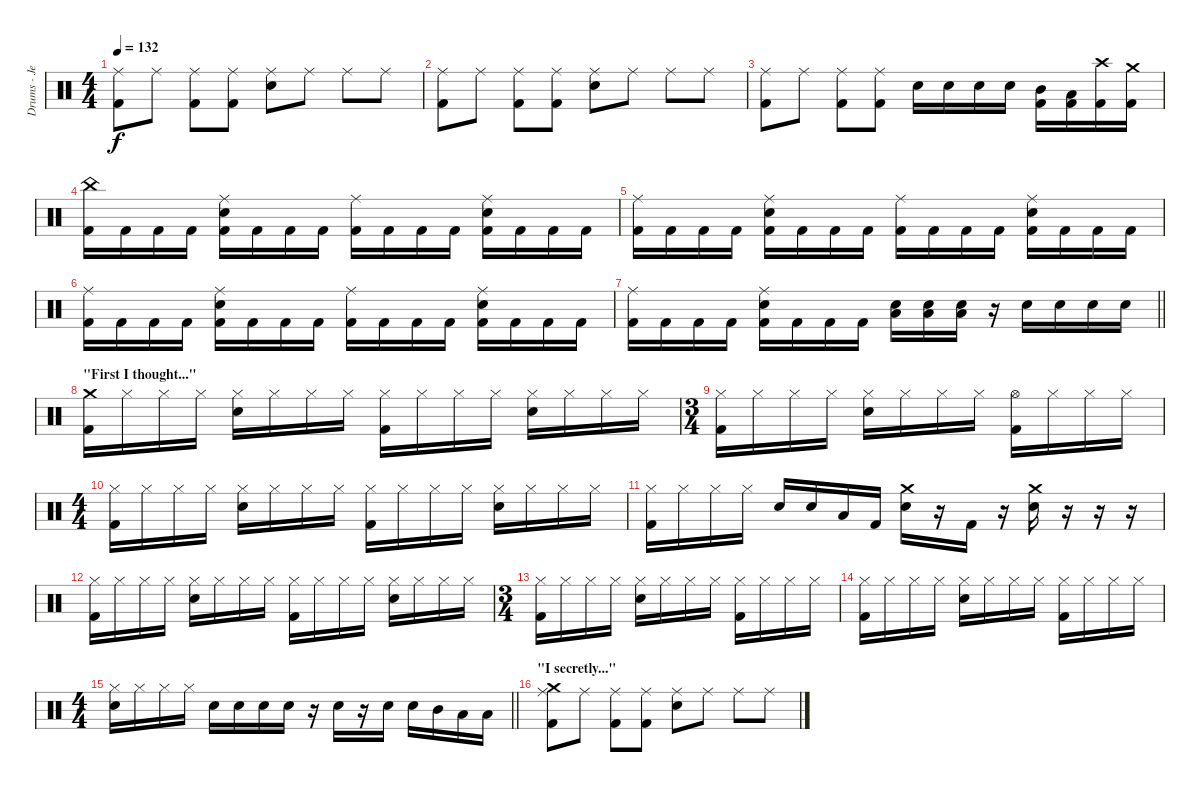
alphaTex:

\track ("Drums - Jeroen" "Drums - Je") {instrument percussion}
\staff {score}
\articulation defaults
\ts (4 4)
\tempo 132
\clef neutral
\ks c
("Ride (middle)" "Kick (hit) 2").8{dy f} "Ride (middle)".8 ("Ride (middle)" "Kick (hit) 2").8 ("Ride (middle)" "Kick (hit) 2").8 ("Ride (middle)" "Electric Snare (hit)").8 "Ride (middle)".8 "Ride (middle)".8 "Ride (middle)".8 |
("Ride (middle)" "Kick (hit) 2").8 "Ride (middle)".8 ("Ride (middle)" "Kick (hit) 2").8 ("Ride (middle)" "Kick (hit) 2").8 ("Ride (middle)" "Electric Snare (hit)").8 "Ride (middle)".8 "Ride (middle)".8 "Ride (middle)".8 |
("Ride (middle)" "Kick (hit) 2").8 "Ride (middle)".8 ("Ride (middle)" "Kick (hit) 2").8 ("Ride (middle)" "Kick (hit) 2").8 "Electric Snare (hit)".16 "Electric Snare (hit)".16 "Electric Snare (hit)".16 "Electric Snare (hit)".16 ("Mid Tom (hit)" "Kick (hit) 2").16 ("Low Tom (hit)" "Kick (hit) 2").16 ("Crash high (hit)" "Kick (hit) 2").16 ("Crash medium (hit)" "Kick (hit) 2").16 |
("China (hit)" "Kick (hit) 2").16 "Kick (hit) 2".16 "Kick (hit) 2".16 "Kick (hit) 2".16 ("Ride (middle)" "Electric Snare (hit)" "Kick (hit) 2").16 "Kick (hit) 2".16 "Kick (hit) 2".16 "Kick (hit) 2".16 ("Ride (middle)" "Kick (hit) 2").16 "Kick (hit) 2".16 "Kick (hit) 2".16 "Kick (hit) 2".16 ("Ride (middle)" "Electric Snare (hit)" "Kick (hit) 2").16 "Kick (hit) 2".16 "Kick (hit) 2".16 "Kick (hit) 2".16 |
("Ride (middle)" "Kick (hit) 2").16 "Kick (hit) 2".16 "Kick (hit) 2".16 "Kick (hit) 2".16 ("Ride (middle)" "Electric Snare (hit)" "Kick (hit) 2").16 "Kick (hit) 2".16 "Kick (hit) 2".16 "Kick (hit) 2".16 ("Ride (middle)" "Kick (hit) 2").16 "Kick (hit) 2".16 "Kick (hit) 2".16 "Kick (hit) 2".16 ("Ride (middle)" "Electric Snare (hit)" "Kick (hit) 2").16 "Kick (hit) 2".16 "Kick (hit) 2".16 "Kick (hit) 2".16 |
("Ride (middle)" "Kick (hit) 2").16 "Kick (hit) 2".16 "Kick (hit) 2".16 "Kick (hit) 2".16 ("Ride (middle)" "Electric Snare (hit)" "Kick (hit) 2").16 "Kick (hit) 2".16 "Kick (hit) 2".16 "Kick (hit) 2".16 ("Ride (middle)" "Kick (hit) 2").16 "Kick (hit) 2".16 "Kick (hit) 2".16 "Kick (hit) 2".16 ("Ride (middle)" "Electric Snare (hit)" "Kick (hit) 2").16 "Kick (hit) 2".16 "Kick (hit) 2".16 "Kick (hit) 2".16 |
\barLineRight lightlight
("Ride (middle)" "Kick (hit) 2").16 "Kick (hit) 2".16 "Kick (hit) 2".16 "Kick (hit) 2".16 ("Ride (middle)" "Electric Snare (hit)" "Kick (hit) 2").16 "Kick (hit) 2".16 "Kick (hit) 2".16 "Kick (hit) 2".16 ("Low Floor Tom (hit)" "Electric Snare (hit)").16 ("Low Floor Tom (hit)" "Electric Snare (hit)").16 ("Low Floor Tom (hit)" "Electric Snare (hit)").16 r.16 "Electric Snare (hit)".16 "Electric Snare (hit)".16 "Electric Snare (hit)".16 "Electric Snare (hit)".16 |
\section ("" "\"First I thought...\"")
("Crash medium (hit)" "Kick (hit) 2").16 "Hi-Hat (closed)".16 "Hi-Hat (closed)".16 "Hi-Hat (closed)".16 ("Hi-Hat (closed)" "Electric Snare (hit)").16 "Hi-Hat (closed)".16 "Hi-Hat (closed)".16 "Hi-Hat (closed)".16 ("Hi-Hat (closed)" "Kick (hit) 2").16 "Hi-Hat (closed)".16 "Hi-Hat (closed)".16 "Hi-Hat (closed)".16 ("Hi-Hat (closed)" "Electric Snare (hit)").16 "Hi-Hat (closed)".16 "Hi-Hat (closed)".16 "Hi-Hat (closed)".16 |
\ts (3 4)
("Hi-Hat (closed)" "Kick (hit) 2").16 "Hi-Hat (closed)".16 "Hi-Hat (closed)".16 "Hi-Hat (closed)".16 ("Hi-Hat (closed)" "Electric Snare (hit)").16 "Hi-Hat (closed)".16 "Hi-Hat (closed)".16 "Hi-Hat (closed)".16 ("Hi-Hat (open)" "Kick (hit) 2").16 "Hi-Hat (closed)".16 "Hi-Hat (closed)".16 "Hi-Hat (closed)".16 |
\ts (4 4)
("Hi-Hat (closed)" "Kick (hit) 2").16 "Hi-Hat (closed)".16 "Hi-Hat (closed)".16 "Hi-Hat (closed)".16 ("Hi-Hat (closed)" "Electric Snare (hit)").16 "Hi-Hat (closed)".16 "Hi-Hat (closed)".16 "Hi-Hat (closed)".16 ("Hi-Hat (closed)" "Kick (hit) 2").16 "Hi-Hat (closed)".16 "Hi-Hat (closed)".16 "Hi-Hat (closed)".16 ("Hi-Hat (closed)" "Electric Snare (hit)").16 "Hi-Hat (closed)".16 "Hi-Hat (closed)".16 "Hi-Hat (closed)".16 |
("Hi-Hat (closed)" "Kick (hit) 2").16 "Hi-Hat (closed)".16 "Hi-Hat (closed)".16 "Hi-Hat (closed)".16 "Electric Snare (hit)".16 "Electric Snare (hit)".16 "Low Tom (hit)".16 "Kick (hit) 2".16 ("Crash medium (hit)" "Electric Snare (hit)").16 r.16 "Kick (hit) 2".16 r.16 ("Crash medium (hit)" "Electric Snare (hit)").16 r.16 r.16 r.16 |
("Hi-Hat (closed)" "Kick (hit) 2").16 "Hi-Hat (closed)".16 "Hi-Hat (closed)".16 "Hi-Hat (closed)".16 ("Hi-Hat (closed)" "Electric Snare (hit)").16 "Hi-Hat (closed)".16 "Hi-Hat (closed)".16 "Hi-Hat (closed)".16 ("Hi-Hat (closed)" "Kick (hit) 2").16 "Hi-Hat (closed)".16 "Hi-Hat (closed)".16 "Hi-Hat (closed)".16 ("Hi-Hat (closed)" "Electric Snare (hit)").16 "Hi-Hat (closed)".16 "Hi-Hat (closed)".16 "Hi-Hat (closed)".16 |
\ts (3 4)
("Hi-Hat (closed)" "Kick (hit) 2").16 "Hi-Hat (closed)".16 "Hi-Hat (closed)".16 "Hi-Hat (closed)".16 ("Hi-Hat (closed)" "Electric Snare (hit)").16 "Hi-Hat (closed)".16 "Hi-Hat (closed)".16 "Hi-Hat (closed)".16 ("Hi-Hat (closed)" "Kick (hit) 2").16 "Hi-Hat (closed)".16 "Hi-Hat (closed)".16 "Hi-Hat (closed)".16 |
("Hi-Hat (closed)" "Kick (hit) 2").16 "Hi-Hat (closed)".16 "Hi-Hat (closed)".16 "Hi-Hat (closed)".16 ("Hi-Hat (closed)" "Electric Snare (hit)").16 "Hi-Hat (closed)".16 "Hi-Hat (closed)".16 "Hi-Hat (closed)".16 ("Hi-Hat (closed)" "Kick (hit) 2").16 "Hi-Hat (closed)".16 "Hi-Hat (closed)".16 "Hi-Hat (closed)".16 |
\ts (4 4)
\barLineRight lightlight
("Hi-Hat (closed)" "Electric Snare (hit)").16 "Hi-Hat (closed)".16 "Hi-Hat (closed)".16 "Hi-Hat (closed)".16 "Electric Snare (hit)".16 "Electric Snare (hit)".16 "Electric Snare (hit)".16 "Electric Snare (hit)".16 r.16 "Electric Snare (hit)".16 r.16 "Electric Snare (hit)".16 "Electric Snare (hit)".16 "Mid Tom (hit)".16 "Low Tom (hit)".16 "Low Floor Tom (hit)".16 |
\section ("" "\"I secretly...\"")
("Crash medium (hit)" "Ride (middle)" "Kick (hit) 2").8 "Ride (middle)".8 ("Ride (middle)" "Kick (hit) 2").8 ("Ride (middle)" "Kick (hit) 2").8 ("Ride (middle)" "Electric Snare (hit)").8 "Ride (middle)".8 "Ride (middle)".8 "Ride (middle)".8
